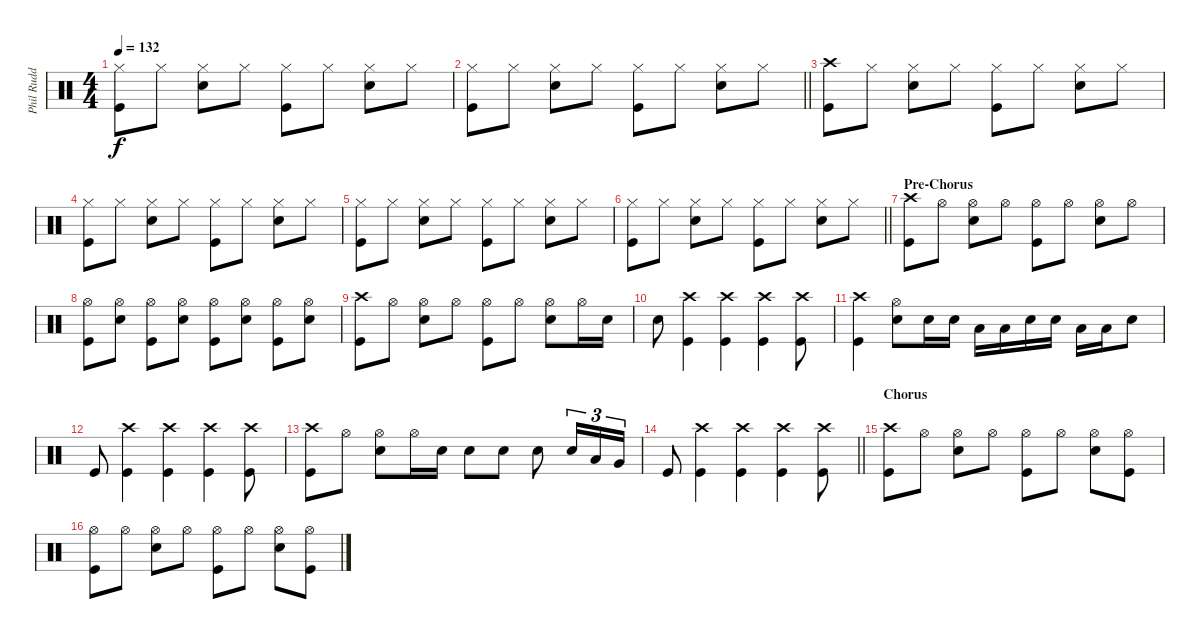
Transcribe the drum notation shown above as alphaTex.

\track ("Phil Rudd" "Phil Rudd") {instrument percussion}
\staff {score}
\articulation defaults
\ts (4 4)
\tempo 132
\clef neutral
\ks c
("Hi-Hat (closed)" "Kick (hit)").8{dy f} "Hi-Hat (closed)".8 ("Hi-Hat (closed)" "Snare (hit) 2").8 "Hi-Hat (closed)".8 ("Hi-Hat (closed)" "Kick (hit)").8 "Hi-Hat (closed)".8 ("Hi-Hat (closed)" "Snare (hit) 2").8 "Hi-Hat (closed)".8 |
\barLineRight lightlight
("Hi-Hat (closed)" "Kick (hit)").8 "Hi-Hat (closed)".8 ("Hi-Hat (closed)" "Snare (hit) 2").8 "Hi-Hat (closed)".8 ("Hi-Hat (closed)" "Kick (hit)").8 "Hi-Hat (closed)".8 ("Hi-Hat (closed)" "Snare (hit) 2").8 "Hi-Hat (closed)".8 |
("Crash high (hit)" "Kick (hit)").8 "Hi-Hat (closed)".8 ("Hi-Hat (closed)" "Snare (hit) 2").8 "Hi-Hat (closed)".8 ("Hi-Hat (closed)" "Kick (hit)").8 "Hi-Hat (closed)".8 ("Hi-Hat (closed)" "Snare (hit) 2").8 "Hi-Hat (closed)".8 |
("Hi-Hat (closed)" "Kick (hit)").8 "Hi-Hat (closed)".8 ("Hi-Hat (closed)" "Snare (hit) 2").8 "Hi-Hat (closed)".8 ("Hi-Hat (closed)" "Kick (hit)").8 "Hi-Hat (closed)".8 ("Hi-Hat (closed)" "Snare (hit) 2").8 "Hi-Hat (closed)".8 |
("Hi-Hat (closed)" "Kick (hit)").8 "Hi-Hat (closed)".8 ("Hi-Hat (closed)" "Snare (hit) 2").8 "Hi-Hat (closed)".8 ("Hi-Hat (closed)" "Kick (hit)").8 "Hi-Hat (closed)".8 ("Hi-Hat (closed)" "Snare (hit) 2").8 "Hi-Hat (closed)".8 |
\barLineRight lightlight
("Hi-Hat (closed)" "Kick (hit)").8 "Hi-Hat (closed)".8 ("Hi-Hat (closed)" "Snare (hit) 2").8 "Hi-Hat (closed)".8 ("Hi-Hat (closed)" "Kick (hit)").8 "Hi-Hat (closed)".8 ("Hi-Hat (closed)" "Snare (hit) 2").8 "Hi-Hat (closed)".8 |
\section ("" "Pre-Chorus")
("Crash high (hit)" "Kick (hit)").8 "Hi-Hat (open)".8 ("Hi-Hat (open)" "Snare (hit) 2").8 "Hi-Hat (open)".8 ("Hi-Hat (open)" "Kick (hit)").8 "Hi-Hat (open)".8 ("Hi-Hat (open)" "Snare (hit) 2").8 "Hi-Hat (open)".8 |
("Hi-Hat (open)" "Kick (hit)").8 ("Hi-Hat (open)" "Snare (hit) 2").8 ("Hi-Hat (open)" "Kick (hit)").8 ("Hi-Hat (open)" "Snare (hit) 2").8 ("Hi-Hat (open)" "Kick (hit)").8 ("Hi-Hat (open)" "Snare (hit) 2").8 ("Hi-Hat (open)" "Kick (hit)").8 ("Hi-Hat (open)" "Snare (hit) 2").8 |
("Crash high (hit)" "Kick (hit)").8 "Hi-Hat (open)".8 ("Hi-Hat (open)" "Snare (hit) 2").8 "Hi-Hat (open)".8 ("Hi-Hat (open)" "Kick (hit)").8 "Hi-Hat (open)".8 ("Hi-Hat (open)" "Snare (hit) 2").8 "Hi-Hat (open)".16 "Snare (hit) 2".16 |
"Snare (hit) 2".8 ("Crash high (hit)" "Kick (hit)").4 ("Crash high (hit)" "Kick (hit)").4 ("Crash high (hit)" "Kick (hit)").4 ("Crash high (hit)" "Kick (hit)").8 |
("Crash high (hit)" "Kick (hit)").4 ("Hi-Hat (open)" "Snare (hit) 2").8 "Snare (hit) 2".16 "Snare (hit) 2".16 "Low Tom (hit)".16 "Low Tom (hit)".16 "Snare (hit) 2".16 "Snare (hit) 2".16 "Low Tom (hit)".16 "Low Tom (hit)".16 "Snare (hit) 2".8 |
"Kick (hit)".8 ("Crash high (hit)" "Kick (hit)").4 ("Crash high (hit)" "Kick (hit)").4 ("Crash high (hit)" "Kick (hit)").4 ("Crash high (hit)" "Kick (hit)").8 |
("Crash high (hit)" "Kick (hit)").8 "Hi-Hat (open)".8 ("Hi-Hat (open)" "Snare (hit) 2").8 "Hi-Hat (open)".16 "Snare (hit) 2".16 "Snare (hit) 2".8 "Snare (hit) 2".8 "Snare (hit) 2".8 "Snare (hit) 2".16{tu (3 2)} "Low Tom (hit)".16{tu (3 2)} "Very Low Tom (hit)".16{tu (3 2)} |
\barLineRight lightlight "Kick (hit)".8
("Crash high (hit)" "Kick (hit)").4 ("Crash high (hit)" "Kick (hit)").4 ("Crash high (hit)" "Kick (hit)").4 ("Crash high (hit)" "Kick (hit)").8 |
\section ("" "Chorus")
("Crash high (hit)" "Kick (hit)").8 "Hi-Hat (open)".8 ("Hi-Hat (open)" "Snare (hit) 2").8 "Hi-Hat (open)".8 ("Hi-Hat (open)" "Kick (hit)").8 "Hi-Hat (open)".8 ("Hi-Hat (open)" "Snare (hit) 2").8 ("Hi-Hat (open)" "Kick (hit)").8 |
("Hi-Hat (open)" "Kick (hit)").8 "Hi-Hat (open)".8 ("Hi-Hat (open)" "Snare (hit) 2").8 "Hi-Hat (open)".8 ("Hi-Hat (open)" "Kick (hit)").8 "Hi-Hat (open)".8 ("Hi-Hat (open)" "Snare (hit) 2").8 ("Hi-Hat (open)" "Kick (hit)").8
